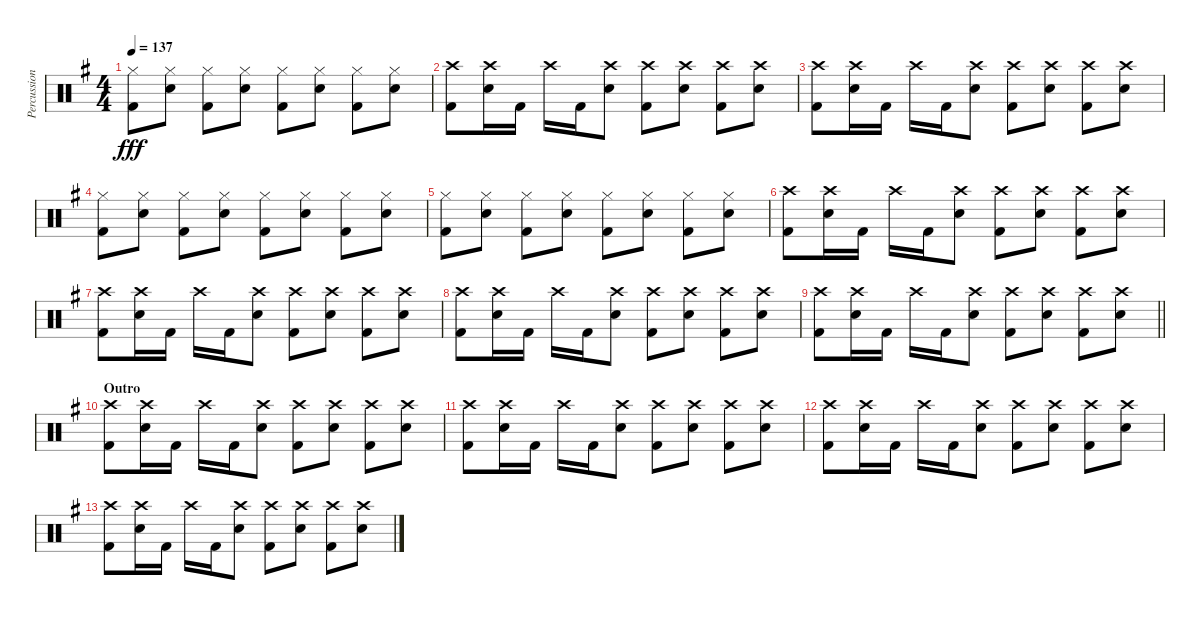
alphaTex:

\track ("Percussion" "Percussion") {instrument percussion}
\staff {score}
\articulation defaults
\ts (4 4)
\tempo 137
\clef neutral
\ks g
("Hi-Hat (closed)" "Kick (hit) 2").8{dy fff} ("Hi-Hat (closed)" "Electric Snare (hit)").8 ("Hi-Hat (closed)" "Kick (hit) 2").8 ("Hi-Hat (closed)" "Electric Snare (hit)").8 ("Hi-Hat (closed)" "Kick (hit) 2").8 ("Hi-Hat (closed)" "Electric Snare (hit)").8 ("Hi-Hat (closed)" "Kick (hit) 2").8 ("Hi-Hat (closed)" "Electric Snare (hit)").8 |
("Crash high (hit)" "Kick (hit) 2").8 ("Crash high (hit)" "Electric Snare (hit)").16 "Kick (hit) 2".16 "Crash high (hit)".16 "Kick (hit) 2".16 ("Crash high (hit)" "Electric Snare (hit)").8 ("Crash high (hit)" "Kick (hit) 2").8 ("Crash high (hit)" "Electric Snare (hit)").8 ("Crash high (hit)" "Kick (hit) 2").8 ("Crash high (hit)" "Electric Snare (hit)").8 |
("Crash high (hit)" "Kick (hit) 2").8 ("Crash high (hit)" "Electric Snare (hit)").16 "Kick (hit) 2".16 "Crash high (hit)".16 "Kick (hit) 2".16 ("Crash high (hit)" "Electric Snare (hit)").8 ("Crash high (hit)" "Kick (hit) 2").8 ("Crash high (hit)" "Electric Snare (hit)").8 ("Crash high (hit)" "Kick (hit) 2").8 ("Crash high (hit)" "Electric Snare (hit)").8 |
("Hi-Hat (closed)" "Kick (hit) 2").8 ("Hi-Hat (closed)" "Electric Snare (hit)").8 ("Hi-Hat (closed)" "Kick (hit) 2").8 ("Hi-Hat (closed)" "Electric Snare (hit)").8 ("Hi-Hat (closed)" "Kick (hit) 2").8 ("Hi-Hat (closed)" "Electric Snare (hit)").8 ("Hi-Hat (closed)" "Kick (hit) 2").8 ("Hi-Hat (closed)" "Electric Snare (hit)").8 |
("Hi-Hat (closed)" "Kick (hit) 2").8 ("Hi-Hat (closed)" "Electric Snare (hit)").8 ("Hi-Hat (closed)" "Kick (hit) 2").8 ("Hi-Hat (closed)" "Electric Snare (hit)").8 ("Hi-Hat (closed)" "Kick (hit) 2").8 ("Hi-Hat (closed)" "Electric Snare (hit)").8 ("Hi-Hat (closed)" "Kick (hit) 2").8 ("Hi-Hat (closed)" "Electric Snare (hit)").8 |
("Crash high (hit)" "Kick (hit) 2").8 ("Crash high (hit)" "Electric Snare (hit)").16 "Kick (hit) 2".16 "Crash high (hit)".16 "Kick (hit) 2".16 ("Crash high (hit)" "Electric Snare (hit)").8 ("Crash high (hit)" "Kick (hit) 2").8 ("Crash high (hit)" "Electric Snare (hit)").8 ("Crash high (hit)" "Kick (hit) 2").8 ("Crash high (hit)" "Electric Snare (hit)").8 |
("Crash high (hit)" "Kick (hit) 2").8 ("Crash high (hit)" "Electric Snare (hit)").16 "Kick (hit) 2".16 "Crash high (hit)".16 "Kick (hit) 2".16 ("Crash high (hit)" "Electric Snare (hit)").8 ("Crash high (hit)" "Kick (hit) 2").8 ("Crash high (hit)" "Electric Snare (hit)").8 ("Crash high (hit)" "Kick (hit) 2").8 ("Crash high (hit)" "Electric Snare (hit)").8 |
("Crash high (hit)" "Kick (hit) 2").8 ("Crash high (hit)" "Electric Snare (hit)").16 "Kick (hit) 2".16 "Crash high (hit)".16 "Kick (hit) 2".16 ("Crash high (hit)" "Electric Snare (hit)").8 ("Crash high (hit)" "Kick (hit) 2").8 ("Crash high (hit)" "Electric Snare (hit)").8 ("Crash high (hit)" "Kick (hit) 2").8 ("Crash high (hit)" "Electric Snare (hit)").8 |
\barLineRight lightlight
("Crash high (hit)" "Kick (hit) 2").8 ("Crash high (hit)" "Electric Snare (hit)").16 "Kick (hit) 2".16 "Crash high (hit)".16 "Kick (hit) 2".16 ("Crash high (hit)" "Electric Snare (hit)").8 ("Crash high (hit)" "Kick (hit) 2").8 ("Crash high (hit)" "Electric Snare (hit)").8 ("Crash high (hit)" "Kick (hit) 2").8 ("Crash high (hit)" "Electric Snare (hit)").8 |
\section ("" "Outro")
("Crash high (hit)" "Kick (hit) 2").8 ("Crash high (hit)" "Electric Snare (hit)").16 "Kick (hit) 2".16 "Crash high (hit)".16 "Kick (hit) 2".16 ("Crash high (hit)" "Electric Snare (hit)").8 ("Crash high (hit)" "Kick (hit) 2").8 ("Crash high (hit)" "Electric Snare (hit)").8 ("Crash high (hit)" "Kick (hit) 2").8 ("Crash high (hit)" "Electric Snare (hit)").8 |
("Crash high (hit)" "Kick (hit) 2").8 ("Crash high (hit)" "Electric Snare (hit)").16 "Kick (hit) 2".16 "Crash high (hit)".16 "Kick (hit) 2".16 ("Crash high (hit)" "Electric Snare (hit)").8 ("Crash high (hit)" "Kick (hit) 2").8 ("Crash high (hit)" "Electric Snare (hit)").8 ("Crash high (hit)" "Kick (hit) 2").8 ("Crash high (hit)" "Electric Snare (hit)").8 |
("Crash high (hit)" "Kick (hit) 2").8 ("Crash high (hit)" "Electric Snare (hit)").16 "Kick (hit) 2".16 "Crash high (hit)".16 "Kick (hit) 2".16 ("Crash high (hit)" "Electric Snare (hit)").8 ("Crash high (hit)" "Kick (hit) 2").8 ("Crash high (hit)" "Electric Snare (hit)").8 ("Crash high (hit)" "Kick (hit) 2").8 ("Crash high (hit)" "Electric Snare (hit)").8 |
("Crash high (hit)" "Kick (hit) 2").8 ("Crash high (hit)" "Electric Snare (hit)").16 "Kick (hit) 2".16 "Crash high (hit)".16 "Kick (hit) 2".16 ("Crash high (hit)" "Electric Snare (hit)").8 ("Crash high (hit)" "Kick (hit) 2").8 ("Crash high (hit)" "Electric Snare (hit)").8 ("Crash high (hit)" "Kick (hit) 2").8 ("Crash high (hit)" "Electric Snare (hit)").8
